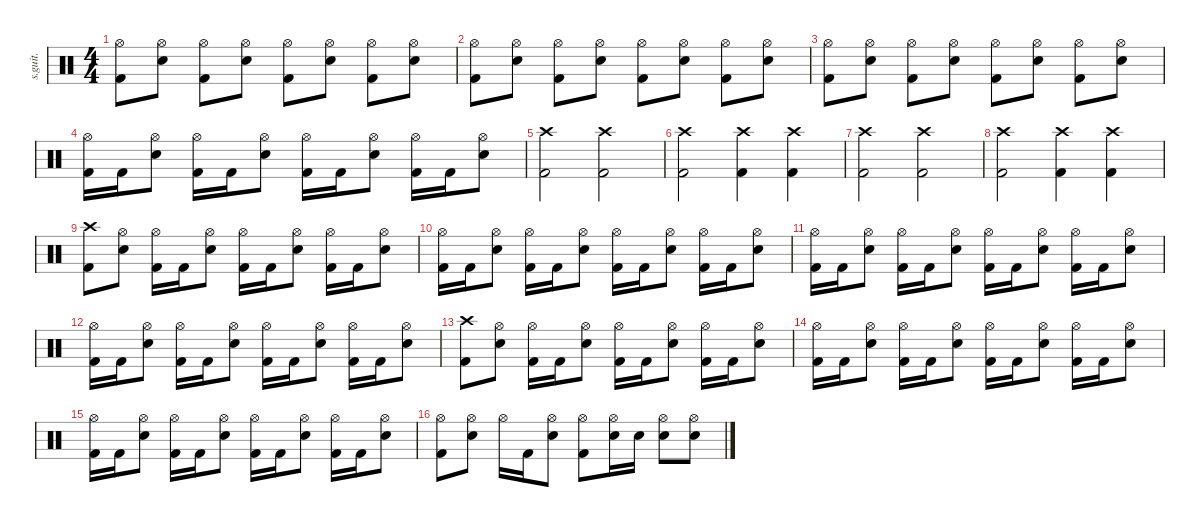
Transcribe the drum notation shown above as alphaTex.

\defaultSystemsLayout 4
\hideDynamics
\bracketExtendMode nobrackets
\track ("" "s.guit.") {instrument percussion}
\staff {score}
\articulation defaults
\ts (4 4)
\tempo (160 hide)
\clef neutral
\ks c
("Hi-Hat (open)" "Kick (hit) 2").8{dy f} ("Hi-Hat (open)" "Snare (hit) 2").8 ("Hi-Hat (open)" "Kick (hit) 2").8 ("Hi-Hat (open)" "Snare (hit) 2").8 ("Hi-Hat (open)" "Kick (hit) 2").8 ("Hi-Hat (open)" "Snare (hit) 2").8 ("Hi-Hat (open)" "Kick (hit) 2").8 ("Hi-Hat (open)" "Snare (hit) 2").8 |
("Hi-Hat (open)" "Kick (hit) 2").8 ("Hi-Hat (open)" "Snare (hit) 2").8 ("Hi-Hat (open)" "Kick (hit) 2").8 ("Hi-Hat (open)" "Snare (hit) 2").8 ("Hi-Hat (open)" "Kick (hit) 2").8 ("Hi-Hat (open)" "Snare (hit) 2").8 ("Hi-Hat (open)" "Kick (hit) 2").8 ("Hi-Hat (open)" "Snare (hit) 2").8 |
("Hi-Hat (open)" "Kick (hit) 2").8 ("Hi-Hat (open)" "Snare (hit) 2").8 ("Hi-Hat (open)" "Kick (hit) 2").8 ("Hi-Hat (open)" "Snare (hit) 2").8 ("Hi-Hat (open)" "Kick (hit) 2").8 ("Hi-Hat (open)" "Snare (hit) 2").8 ("Hi-Hat (open)" "Kick (hit) 2").8 ("Hi-Hat (open)" "Snare (hit) 2").8 |
("Hi-Hat (open)" "Kick (hit) 2").16 "Kick (hit) 2".16 ("Hi-Hat (open)" "Snare (hit) 2").8 ("Hi-Hat (open)" "Kick (hit) 2").16 "Kick (hit) 2".16 ("Hi-Hat (open)" "Snare (hit) 2").8 ("Hi-Hat (open)" "Kick (hit) 2").16 "Kick (hit) 2".16 ("Hi-Hat (open)" "Snare (hit) 2").8 ("Hi-Hat (open)" "Kick (hit) 2").16 "Kick (hit) 2".16 ("Hi-Hat (open)" "Snare (hit) 2").8 |
("Crash high (hit)" "Kick (hit) 2").2 ("Crash high (hit)" "Kick (hit) 2").2 |
("Crash high (hit)" "Kick (hit) 2").2 ("Crash high (hit)" "Kick (hit) 2").4 ("Crash high (hit)" "Kick (hit) 2").4 |
("Crash high (hit)" "Kick (hit) 2").2 ("Crash high (hit)" "Kick (hit) 2").2 |
("Crash high (hit)" "Kick (hit) 2").2 ("Crash high (hit)" "Kick (hit) 2").4 ("Crash high (hit)" "Kick (hit) 2").4 |
("Crash high (hit)" "Kick (hit) 2").8 ("Hi-Hat (open)" "Snare (hit) 2").8 ("Hi-Hat (open)" "Kick (hit) 2").16 "Kick (hit) 2".16 ("Hi-Hat (open)" "Snare (hit) 2").8 ("Hi-Hat (open)" "Kick (hit) 2").16 "Kick (hit) 2".16 ("Hi-Hat (open)" "Snare (hit) 2").8 ("Hi-Hat (open)" "Kick (hit) 2").16 "Kick (hit) 2".16 ("Hi-Hat (open)" "Snare (hit) 2").8 |
("Hi-Hat (open)" "Kick (hit) 2").16 "Kick (hit) 2".16 ("Hi-Hat (open)" "Snare (hit) 2").8 ("Hi-Hat (open)" "Kick (hit) 2").16 "Kick (hit) 2".16 ("Hi-Hat (open)" "Snare (hit) 2").8 ("Hi-Hat (open)" "Kick (hit) 2").16 "Kick (hit) 2".16 ("Hi-Hat (open)" "Snare (hit) 2").8 ("Hi-Hat (open)" "Kick (hit) 2").16 "Kick (hit) 2".16 ("Hi-Hat (open)" "Snare (hit) 2").8 |
("Hi-Hat (open)" "Kick (hit) 2").16 "Kick (hit) 2".16 ("Hi-Hat (open)" "Snare (hit) 2").8 ("Hi-Hat (open)" "Kick (hit) 2").16 "Kick (hit) 2".16 ("Hi-Hat (open)" "Snare (hit) 2").8 ("Hi-Hat (open)" "Kick (hit) 2").16 "Kick (hit) 2".16 ("Hi-Hat (open)" "Snare (hit) 2").8 ("Hi-Hat (open)" "Kick (hit) 2").16 "Kick (hit) 2".16 ("Hi-Hat (open)" "Snare (hit) 2").8 |
("Hi-Hat (open)" "Kick (hit) 2").16 "Kick (hit) 2".16 ("Hi-Hat (open)" "Snare (hit) 2").8 ("Hi-Hat (open)" "Kick (hit) 2").16 "Kick (hit) 2".16 ("Hi-Hat (open)" "Snare (hit) 2").8 ("Hi-Hat (open)" "Kick (hit) 2").16 "Kick (hit) 2".16 ("Hi-Hat (open)" "Snare (hit) 2").8 ("Hi-Hat (open)" "Kick (hit) 2").16 "Kick (hit) 2".16 ("Hi-Hat (open)" "Snare (hit) 2").8 |
("Crash high (hit)" "Kick (hit) 2").8 ("Hi-Hat (open)" "Snare (hit) 2").8 ("Hi-Hat (open)" "Kick (hit) 2").16 "Kick (hit) 2".16 ("Hi-Hat (open)" "Snare (hit) 2").8 ("Hi-Hat (open)" "Kick (hit) 2").16 "Kick (hit) 2".16 ("Hi-Hat (open)" "Snare (hit) 2").8 ("Hi-Hat (open)" "Kick (hit) 2").16 "Kick (hit) 2".16 ("Hi-Hat (open)" "Snare (hit) 2").8 |
("Hi-Hat (open)" "Kick (hit) 2").16 "Kick (hit) 2".16 ("Hi-Hat (open)" "Snare (hit) 2").8 ("Hi-Hat (open)" "Kick (hit) 2").16 "Kick (hit) 2".16 ("Hi-Hat (open)" "Snare (hit) 2").8 ("Hi-Hat (open)" "Kick (hit) 2").16 "Kick (hit) 2".16 ("Hi-Hat (open)" "Snare (hit) 2").8 ("Hi-Hat (open)" "Kick (hit) 2").16 "Kick (hit) 2".16 ("Hi-Hat (open)" "Snare (hit) 2").8 |
("Hi-Hat (open)" "Kick (hit) 2").16 "Kick (hit) 2".16 ("Hi-Hat (open)" "Snare (hit) 2").8 ("Hi-Hat (open)" "Kick (hit) 2").16 "Kick (hit) 2".16 ("Hi-Hat (open)" "Snare (hit) 2").8 ("Hi-Hat (open)" "Kick (hit) 2").16 "Kick (hit) 2".16 ("Hi-Hat (open)" "Snare (hit) 2").8 ("Hi-Hat (open)" "Kick (hit) 2").16 "Kick (hit) 2".16 ("Hi-Hat (open)" "Snare (hit) 2").8 |
("Hi-Hat (open)" "Kick (hit) 2").8 ("Hi-Hat (open)" "Snare (hit) 2").8 "Hi-Hat (open)".16 "Kick (hit) 2".16 ("Hi-Hat (open)" "Snare (hit) 2").8 ("Hi-Hat (open)" "Kick (hit) 2").8 ("Hi-Hat (open)" "Snare (hit) 2").16 "Snare (hit) 2".16 ("Hi-Hat (open)" "Snare (hit) 2").8 ("Hi-Hat (open)" "Snare (hit) 2").8
